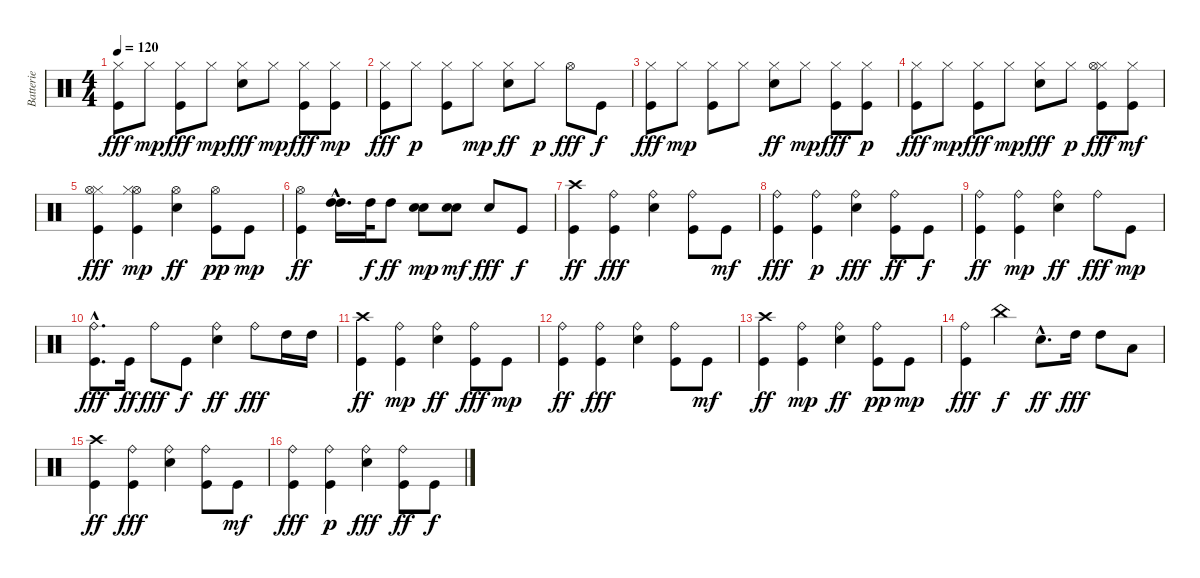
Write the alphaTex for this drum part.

\track ("Batterie" "Batterie") {instrument percussion}
\staff {score}
\articulation defaults
\ts (4 4)
\tempo 120
\clef neutral
\ks c
("Kick (hit)" "Hi-Hat (closed)").8{dy fff} "Hi-Hat (closed)".8{dy mp} ("Kick (hit)" "Hi-Hat (closed)").8{dy fff} "Hi-Hat (closed)".8{dy mp} ("Electric Snare (hit)" "Hi-Hat (closed)").8{dy fff} "Hi-Hat (closed)".8{dy mp} ("Kick (hit)" "Hi-Hat (closed)").8{dy fff} ("Hi-Hat (closed)" "Kick (hit)").8{dy mp} |
("Kick (hit)" "Hi-Hat (closed)").8{dy fff} "Hi-Hat (closed)".8{dy p} ("Hi-Hat (closed)" "Kick (hit)").8 "Hi-Hat (closed)".8{dy mp} ("Hi-Hat (closed)" "Electric Snare (hit)").8{dy ff} "Hi-Hat (closed)".8{dy p} "Hi-Hat (open)".8{dy fff} "Kick (hit)".8{dy f} |
("Kick (hit)" "Hi-Hat (closed)").8{dy fff} "Hi-Hat (closed)".8{dy mp} ("Hi-Hat (closed)" "Kick (hit)").8 "Hi-Hat (closed)".8 ("Hi-Hat (closed)" "Electric Snare (hit)").8{dy ff} "Hi-Hat (closed)".8{dy mp} ("Kick (hit)" "Hi-Hat (closed)").8{dy fff} ("Kick (hit)" "Hi-Hat (closed)").8{dy p} |
("Kick (hit)" "Hi-Hat (closed)").8{dy fff} "Hi-Hat (closed)".8{dy mp} ("Kick (hit)" "Hi-Hat (closed)").8{dy fff} "Hi-Hat (closed)".8{dy mp} ("Electric Snare (hit)" "Hi-Hat (closed)").8{dy fff} "Hi-Hat (closed)".8{dy p} ("Kick (hit)" "Hi-Hat (closed)" "Hi-Hat (open)").8{dy fff} ("Kick (hit)" "Hi-Hat (closed)").8{dy mf} |
("Kick (hit)" "Hi-Hat (closed)" "Hi-Hat (open)").4{dy fff} ("Hi-Hat (open)" "Hi-Hat (closed)" "Kick (hit)").4{dy mp} ("Hi-Hat (open)" "Electric Snare (hit)").4{dy ff} ("Hi-Hat (open)" "Kick (hit)").8{dy pp} "Kick (hit)".8{dy mp} |
("Hi-Hat (open)" "Kick (hit)").4{dy ff} ("High Tom (hit)"{hac} "High Tom (hit)"{hac}).16{d} "High Tom (hit)".32{dy f} "High Tom (hit)".8{dy ff} ("Electric Snare (hit)" "Electric Snare (hit)").8{dy mp} ("Electric Snare (hit)" "Electric Snare (hit)").8{dy mf} "Electric Snare (hit)".8{dy fff} "Kick (hit)".8{dy f} |
("Kick (hit)" "Crash high (hit)").4{dy ff} ("Kick (hit)" "Ride (bell)").4{dy fff} ("Electric Snare (hit)" "Ride (bell)").4 ("Kick (hit)" "Ride (bell)").8 "Kick (hit)".8{dy mf} |
("Kick (hit)" "Ride (bell)").4{dy fff} ("Ride (bell)" "Kick (hit)").4{dy p} ("Electric Snare (hit)" "Ride (bell)").4{dy fff} ("Kick (hit)" "Ride (bell)").8{dy ff} "Kick (hit)".8{dy f} |
("Ride (bell)" "Kick (hit)").4{dy ff} ("Ride (bell)" "Kick (hit)").4{dy mp} ("Ride (bell)" "Electric Snare (hit)").4{dy ff} "Ride (bell)".8{dy fff} "Kick (hit)".8{dy mp} |
("Kick (hit)"{hac} "Ride (bell)"{hac}).8{d dy fff} "Kick (hit)".16{dy ff} "Ride (bell)".8{dy fff} "Kick (hit)".8{dy f} ("Electric Snare (hit)" "Ride (bell)").4{dy ff} "Ride (bell)".8{dy fff} "High Tom (hit)".16 "High Tom (hit)".16 |
("Crash high (hit)" "Kick (hit)").4{dy ff} ("Ride (bell)" "Kick (hit)").4{dy mp} ("Ride (bell)" "Electric Snare (hit)").4{dy ff} ("Kick (hit)" "Ride (bell)").8{dy fff} "Kick (hit)".8{dy mp} |
("Ride (bell)" "Kick (hit)").4{dy ff} ("Kick (hit)" "Ride (bell)").4{dy fff} ("Electric Snare (hit)" "Ride (bell)").4 ("Kick (hit)" "Ride (bell)").8 "Kick (hit)".8{dy mf} |
("Crash high (hit)" "Kick (hit)").4{dy ff} ("Ride (bell)" "Kick (hit)").4{dy mp} ("Ride (bell)" "Electric Snare (hit)").4{dy ff} ("Ride (bell)" "Kick (hit)").8{dy pp} "Kick (hit)".8{dy mp} |
("Kick (hit)" "Ride (bell)").4{dy fff} "China (hit)".4{dy f} "Electric Snare (hit)"{hac}.8{d dy ff} "High Tom (hit)".16{dy fff} "High Tom (hit)".8 "Low Tom (hit)".8 |
("Kick (hit)" "Crash high (hit)").4{dy ff} ("Kick (hit)" "Ride (bell)").4{dy fff} ("Electric Snare (hit)" "Ride (bell)").4 ("Kick (hit)" "Ride (bell)").8 "Kick (hit)".8{dy mf} |
("Kick (hit)" "Ride (bell)").4{dy fff} ("Ride (bell)" "Kick (hit)").4{dy p} ("Electric Snare (hit)" "Ride (bell)").4{dy fff} ("Kick (hit)" "Ride (bell)").8{dy ff} "Kick (hit)".8{dy f}
